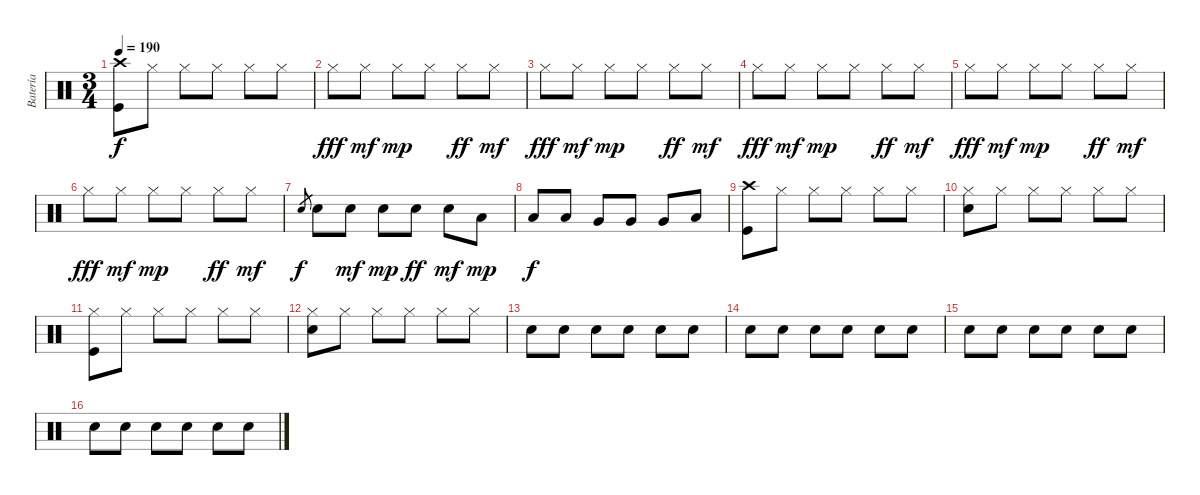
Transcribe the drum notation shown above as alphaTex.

\track ("Batería" "Batería") {instrument percussion}
\staff {score}
\articulation defaults
\ts (3 4)
\tempo 190
\clef neutral
\ks c
("Kick (hit)" "Crash high (hit)").8{dy f} "Hi-Hat (closed)".8 "Hi-Hat (closed)".8 "Hi-Hat (closed)".8 "Hi-Hat (closed)".8 "Hi-Hat (closed)".8 |
"Hi-Hat (closed)".8{dy fff} "Hi-Hat (closed)".8{dy mf} "Hi-Hat (closed)".8{dy mp} "Hi-Hat (closed)".8 "Hi-Hat (closed)".8{dy ff} "Hi-Hat (closed)".8{dy mf} |
"Hi-Hat (closed)".8{dy fff} "Hi-Hat (closed)".8{dy mf} "Hi-Hat (closed)".8{dy mp} "Hi-Hat (closed)".8 "Hi-Hat (closed)".8{dy ff} "Hi-Hat (closed)".8{dy mf} |
"Hi-Hat (closed)".8{dy fff} "Hi-Hat (closed)".8{dy mf} "Hi-Hat (closed)".8{dy mp} "Hi-Hat (closed)".8 "Hi-Hat (closed)".8{dy ff} "Hi-Hat (closed)".8{dy mf} |
"Hi-Hat (closed)".8{dy fff} "Hi-Hat (closed)".8{dy mf} "Hi-Hat (closed)".8{dy mp} "Hi-Hat (closed)".8 "Hi-Hat (closed)".8{dy ff} "Hi-Hat (closed)".8{dy mf} |
"Hi-Hat (closed)".8{dy fff} "Hi-Hat (closed)".8{dy mf} "Hi-Hat (closed)".8{dy mp} "Hi-Hat (closed)".8 "Hi-Hat (closed)".8{dy ff} "Hi-Hat (closed)".8{dy mf} |
"Electric Snare (hit)".8{gr dy f} "Electric Snare (hit)".8 "Snare (hit) 2".8{dy mf} "Snare (hit) 2".8{dy mp} "Snare (hit) 2".8{dy ff} "Snare (hit) 2".8{dy mf} "Low Tom (hit)".8{dy mp} |
"Low Tom (hit)".8{dy f} "Low Tom (hit)".8 "Very Low Tom (hit)".8 "Very Low Tom (hit)".8 "Very Low Tom (hit)".8 "Low Floor Tom (hit)".8 |
("Crash high (hit)" "Kick (hit)").8 "Hi-Hat (closed)".8 "Hi-Hat (closed)".8 "Hi-Hat (closed)".8 "Hi-Hat (closed)".8 "Hi-Hat (closed)".8 |
("Hi-Hat (closed)" "Snare (hit) 2").8 "Hi-Hat (closed)".8 "Hi-Hat (closed)".8 "Hi-Hat (closed)".8 "Hi-Hat (closed)".8 "Hi-Hat (closed)".8 |
("Hi-Hat (closed)" "Kick (hit)").8 "Hi-Hat (closed)".8 "Hi-Hat (closed)".8 "Hi-Hat (closed)".8 "Hi-Hat (closed)".8 "Hi-Hat (closed)".8 |
("Hi-Hat (closed)" "Snare (hit) 2").8 "Hi-Hat (closed)".8 "Hi-Hat (closed)".8 "Hi-Hat (closed)".8 "Hi-Hat (closed)".8 "Hi-Hat (closed)".8 |
"Snare (hit) 2".8 "Snare (hit) 2".8 "Snare (hit) 2".8 "Snare (hit) 2".8 "Snare (hit) 2".8 "Snare (hit) 2".8 |
"Snare (hit) 2".8 "Snare (hit) 2".8 "Snare (hit) 2".8 "Snare (hit) 2".8 "Snare (hit) 2".8 "Snare (hit) 2".8 |
"Snare (hit) 2".8 "Snare (hit) 2".8 "Snare (hit) 2".8 "Snare (hit) 2".8 "Snare (hit) 2".8 "Snare (hit) 2".8 |
"Snare (hit) 2".8 "Snare (hit) 2".8 "Snare (hit) 2".8 "Snare (hit) 2".8 "Snare (hit) 2".8 "Snare (hit) 2".8
